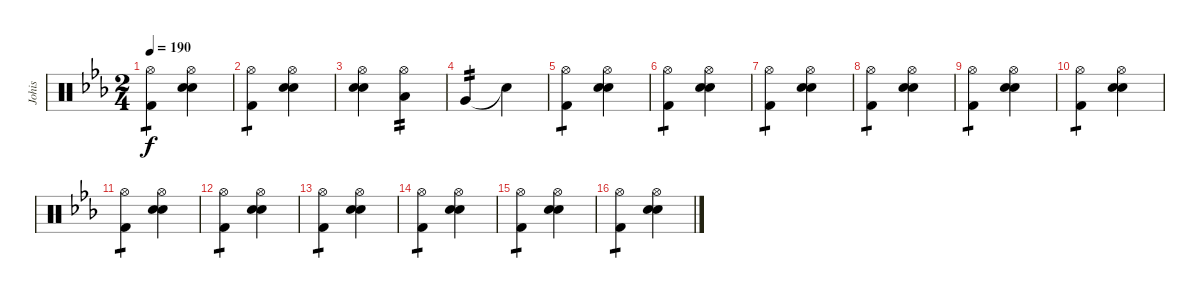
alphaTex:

\track ("Johis" "Johis") {instrument percussion}
\staff {score}
\articulation defaults
\ts (2 4)
\tempo 190
\clef neutral
\ks eb
("Hi-Hat (open)" "Kick (hit) 2").4{tp 1 dy f} ("Hi-Hat (open)" "Electric Snare (hit)" "Snare (hit) 2").4 |
("Hi-Hat (open)" "Kick (hit) 2").4{tp 1} ("Hi-Hat (open)" "Electric Snare (hit)" "Snare (hit) 2").4 |
("Hi-Hat (open)" "Electric Snare (hit)" "Snare (hit) 2").4 ("Hi-Hat (open)" "Low Tom (hit)").4{tp 2} |
"Very Low Tom (hit)".4{tp 2} "Snare (hit)"{t}.4 |
("Hi-Hat (open)" "Kick (hit) 2").4{tp 1} ("Hi-Hat (open)" "Electric Snare (hit)" "Snare (hit) 2").4 |
("Hi-Hat (open)" "Kick (hit) 2").4{tp 1} ("Hi-Hat (open)" "Electric Snare (hit)" "Snare (hit) 2").4 |
("Hi-Hat (open)" "Kick (hit) 2").4{tp 1} ("Hi-Hat (open)" "Electric Snare (hit)" "Snare (hit) 2").4 |
("Hi-Hat (open)" "Kick (hit) 2").4{tp 1} ("Hi-Hat (open)" "Electric Snare (hit)" "Snare (hit) 2").4 |
("Hi-Hat (open)" "Kick (hit) 2").4{tp 1} ("Hi-Hat (open)" "Electric Snare (hit)" "Snare (hit) 2").4 |
("Hi-Hat (open)" "Kick (hit) 2").4{tp 1} ("Hi-Hat (open)" "Electric Snare (hit)" "Snare (hit) 2").4 |
("Hi-Hat (open)" "Kick (hit) 2").4{tp 1} ("Hi-Hat (open)" "Electric Snare (hit)" "Snare (hit) 2").4 |
("Hi-Hat (open)" "Kick (hit) 2").4{tp 1} ("Hi-Hat (open)" "Electric Snare (hit)" "Snare (hit) 2").4 |
("Hi-Hat (open)" "Kick (hit) 2").4{tp 1} ("Hi-Hat (open)" "Electric Snare (hit)" "Snare (hit) 2").4 |
("Hi-Hat (open)" "Kick (hit) 2").4{tp 1} ("Hi-Hat (open)" "Electric Snare (hit)" "Snare (hit) 2").4 |
("Hi-Hat (open)" "Kick (hit) 2").4{tp 1} ("Hi-Hat (open)" "Electric Snare (hit)" "Snare (hit) 2").4 |
("Hi-Hat (open)" "Kick (hit) 2").4{tp 1} ("Hi-Hat (open)" "Electric Snare (hit)" "Snare (hit) 2").4
